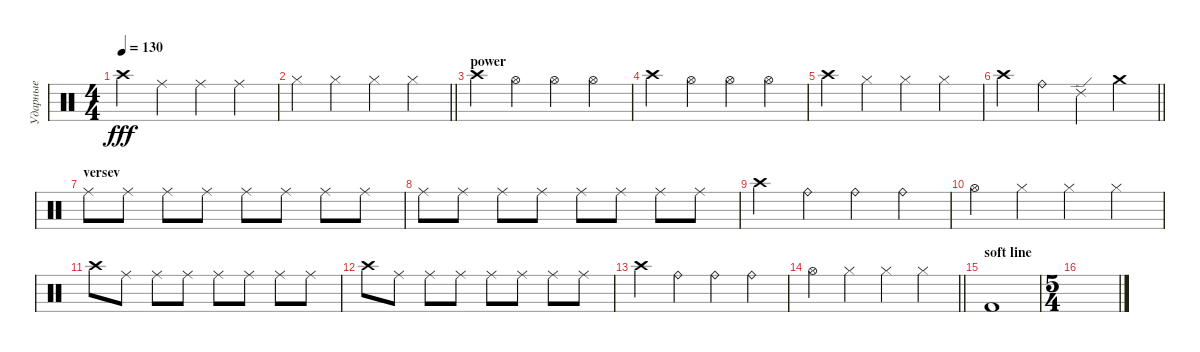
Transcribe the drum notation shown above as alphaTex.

\track ("Ударные" "Ударные") {instrument percussion}
\staff {score}
\articulation defaults
\ts (4 4)
\tempo 130
\clef neutral
\ks c "Crash high (hit)".4{dy fff} "Ride (middle)".4 "Ride (middle)".4 "Ride (middle)".4
|
\barLineRight lightlight "Hi-Hat (closed)".4 "Hi-Hat (closed)".4 "Hi-Hat (closed)".4 "Hi-Hat (closed)".4
|
\section ("" "power")
"Crash high (hit)".4 "Hi-Hat (open)".4 "Hi-Hat (open)".4 "Hi-Hat (open)".4 |
"Crash high (hit)".4 "Hi-Hat (open)".4 "Hi-Hat (open)".4 "Hi-Hat (open)".4 |
"Crash high (hit)".4 "Hi-Hat (closed)".4 "Hi-Hat (closed)".4 "Hi-Hat (closed)".4 |
\barLineRight lightlight "Crash high (hit)".4 "Ride (bell)".4 "Ride (edge) 2".4 "Crash medium (hit)".4
|
\section ("" "versev")
"Ride (middle)".8 "Ride (middle)".8 "Ride (middle)".8 "Ride (middle)".8 "Ride (middle)".8 "Ride (middle)".8 "Ride (middle)".8 "Ride (middle)".8 |
"Ride (middle)".8 "Ride (middle)".8 "Ride (middle)".8 "Ride (middle)".8 "Ride (middle)".8 "Ride (middle)".8 "Ride (middle)".8 "Ride (middle)".8 |
"Crash high (hit)".4 "Ride (bell)".4 "Ride (bell)".4 "Ride (bell)".4 |
"Hi-Hat (open)".4 "Hi-Hat (closed)".4 "Hi-Hat (closed)".4 "Hi-Hat (closed)".4 |
"Crash high (hit)".8 "Ride (middle)".8 "Ride (middle)".8 "Ride (middle)".8 "Ride (middle)".8 "Ride (middle)".8 "Ride (middle)".8 "Ride (middle)".8 |
"Crash high (hit)".8 "Ride (middle)".8 "Ride (middle)".8 "Ride (middle)".8 "Ride (middle)".8 "Ride (middle)".8 "Ride (middle)".8 "Ride (middle)".8 |
"Crash high (hit)".4 "Ride (bell)".4 "Ride (bell)".4 "Ride (bell)".4 |
\barLineRight lightlight "Hi-Hat (open)".4 "Hi-Hat (closed)".4 "Hi-Hat (closed)".4 "Hi-Hat (closed)".4
|
\section ("" "soft line")
"Kick (hit) 2".1 |
\ts (5 4)
